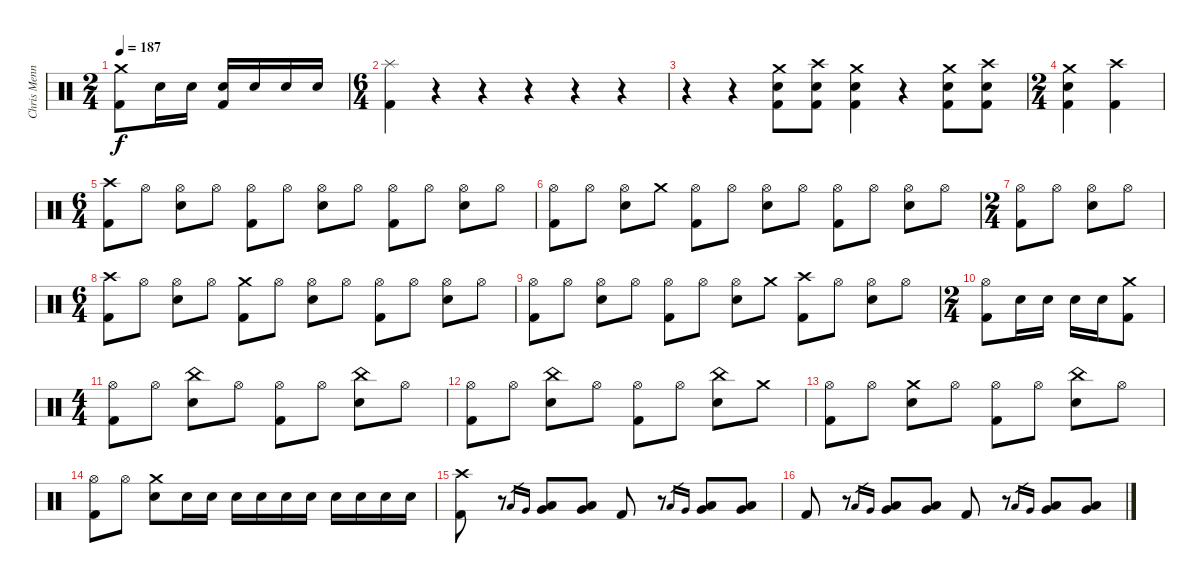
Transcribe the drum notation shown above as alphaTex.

\track ("Chris Menning" "Chris Menn") {instrument percussion}
\staff {score}
\articulation defaults
\ts (2 4)
\tempo 187
\clef neutral
\ks c
("Crash medium (hit)" "Kick (hit) 2").8{dy f} "Electric Snare (hit)".16 "Electric Snare (hit)".16 ("Electric Snare (hit)" "Kick (hit) 2").16 "Electric Snare (hit)".16 "Electric Snare (hit)".16 "Electric Snare (hit)".16 |
\ts (6 4)
("Splash (hit)" "Kick (hit) 2").4 r.4 r.4 r.4 r.4 r.4 |
r.4 r.4 ("Crash medium (hit)" "Electric Snare (hit)" "Kick (hit) 2").8 ("Crash high (hit)" "Electric Snare (hit)" "Kick (hit) 2").8 ("Crash medium (hit)" "Electric Snare (hit)" "Kick (hit) 2").4 r.4 ("Crash medium (hit)" "Electric Snare (hit)" "Kick (hit) 2").8 ("Crash high (hit)" "Electric Snare (hit)" "Kick (hit) 2").8 |
\ts (2 4)
("Crash medium (hit)" "Electric Snare (hit)" "Kick (hit) 2").4 ("Crash high (hit)" "Kick (hit) 2").4 |
\ts (6 4)
("Crash high (hit)" "Kick (hit) 2").8 "Hi-Hat (open)".8 ("Hi-Hat (open)" "Electric Snare (hit)").8 "Hi-Hat (open)".8 ("Hi-Hat (open)" "Kick (hit) 2").8 "Hi-Hat (open)".8 ("Hi-Hat (open)" "Electric Snare (hit)").8 "Hi-Hat (open)".8 ("Hi-Hat (open)" "Kick (hit) 2").8 "Hi-Hat (open)".8 ("Hi-Hat (open)" "Electric Snare (hit)").8 "Hi-Hat (open)".8 |
("Hi-Hat (open)" "Kick (hit) 2").8 "Hi-Hat (open)".8 ("Hi-Hat (open)" "Electric Snare (hit)").8 "Crash medium (hit)".8 ("Hi-Hat (open)" "Kick (hit) 2").8 "Hi-Hat (open)".8 ("Hi-Hat (open)" "Electric Snare (hit)").8 "Hi-Hat (open)".8 ("Hi-Hat (open)" "Kick (hit) 2").8 "Hi-Hat (open)".8 ("Hi-Hat (open)" "Electric Snare (hit)").8 "Hi-Hat (open)".8 |
\ts (2 4)
("Hi-Hat (open)" "Kick (hit) 2").8 "Hi-Hat (open)".8 ("Hi-Hat (open)" "Electric Snare (hit)").8 "Hi-Hat (open)".8 |
\ts (6 4)
("Crash high (hit)" "Kick (hit) 2").8 "Hi-Hat (open)".8 ("Hi-Hat (open)" "Electric Snare (hit)").8 "Hi-Hat (open)".8 ("Crash medium (hit)" "Kick (hit) 2").8 "Hi-Hat (open)".8 ("Hi-Hat (open)" "Electric Snare (hit)").8 "Hi-Hat (open)".8 ("Hi-Hat (open)" "Kick (hit) 2").8 "Hi-Hat (open)".8 ("Hi-Hat (open)" "Electric Snare (hit)").8 "Hi-Hat (open)".8 |
("Hi-Hat (open)" "Kick (hit) 2").8 "Hi-Hat (open)".8 ("Hi-Hat (open)" "Electric Snare (hit)").8 "Hi-Hat (open)".8 ("Hi-Hat (open)" "Kick (hit) 2").8 "Hi-Hat (open)".8 ("Hi-Hat (open)" "Electric Snare (hit)").8 "Crash medium (hit)".8 ("Crash high (hit)" "Kick (hit) 2").8 "Hi-Hat (open)".8 ("Hi-Hat (open)" "Electric Snare (hit)").8 "Hi-Hat (open)".8 |
\ts (2 4)
("Hi-Hat (open)" "Kick (hit) 2").8 "Electric Snare (hit)".16 "Electric Snare (hit)".16 "Electric Snare (hit)".16 "Electric Snare (hit)".16 ("Crash medium (hit)" "Kick (hit) 2").8 |
\ts (4 4)
("Hi-Hat (open)" "Kick (hit) 2").8 "Hi-Hat (open)".8 ("China (hit)" "Electric Snare (hit)").8 "Hi-Hat (open)".8 ("Hi-Hat (open)" "Kick (hit) 2").8 "Hi-Hat (open)".8 ("China (hit)" "Electric Snare (hit)").8 "Hi-Hat (open)".8 |
("Hi-Hat (open)" "Kick (hit) 2").8 "Hi-Hat (open)".8 ("China (hit)" "Electric Snare (hit)").8 "Hi-Hat (open)".8 ("Hi-Hat (open)" "Kick (hit) 2").8 "Hi-Hat (open)".8 ("China (hit)" "Electric Snare (hit)").8 "Crash medium (hit)".8 |
("Hi-Hat (open)" "Kick (hit) 2").8 "Hi-Hat (open)".8 ("Crash medium (hit)" "Electric Snare (hit)").8 "Hi-Hat (open)".8 ("Hi-Hat (open)" "Kick (hit) 2").8 "Hi-Hat (open)".8 ("China (hit)" "Electric Snare (hit)").8 "Hi-Hat (open)".8 |
("Hi-Hat (open)" "Kick (hit) 2").8 "Hi-Hat (open)".8 ("Crash medium (hit)" "Electric Snare (hit)").8 "Electric Snare (hit)".16 "Electric Snare (hit)".16 "Electric Snare (hit)".16 "Electric Snare (hit)".16 "Electric Snare (hit)".16 "Electric Snare (hit)".16 "Electric Snare (hit)".16 "Electric Snare (hit)".16 "Electric Snare (hit)".16 "Electric Snare (hit)".16 |
("Crash high (hit)" "Kick (hit) 2").8 r.8 "Low Tom (hit)".16{gr} "Very Low Tom (hit)".16{gr} ("Low Tom (hit)" "Very Low Tom (hit)").8 ("Low Tom (hit)" "Very Low Tom (hit)").8 "Kick (hit) 2".8 r.8 "Low Tom (hit)".16{gr} "Very Low Tom (hit)".16{gr} ("Low Tom (hit)" "Very Low Tom (hit)").8 ("Low Tom (hit)" "Very Low Tom (hit)").8 |
"Kick (hit) 2".8 r.8 "Low Tom (hit)".16{gr} "Very Low Tom (hit)".16{gr} ("Low Tom (hit)" "Very Low Tom (hit)").8 ("Low Tom (hit)" "Very Low Tom (hit)").8 "Kick (hit) 2".8 r.8 "Low Tom (hit)".16{gr} "Very Low Tom (hit)".16{gr} ("Low Tom (hit)" "Very Low Tom (hit)").8 ("Low Tom (hit)" "Very Low Tom (hit)").8
